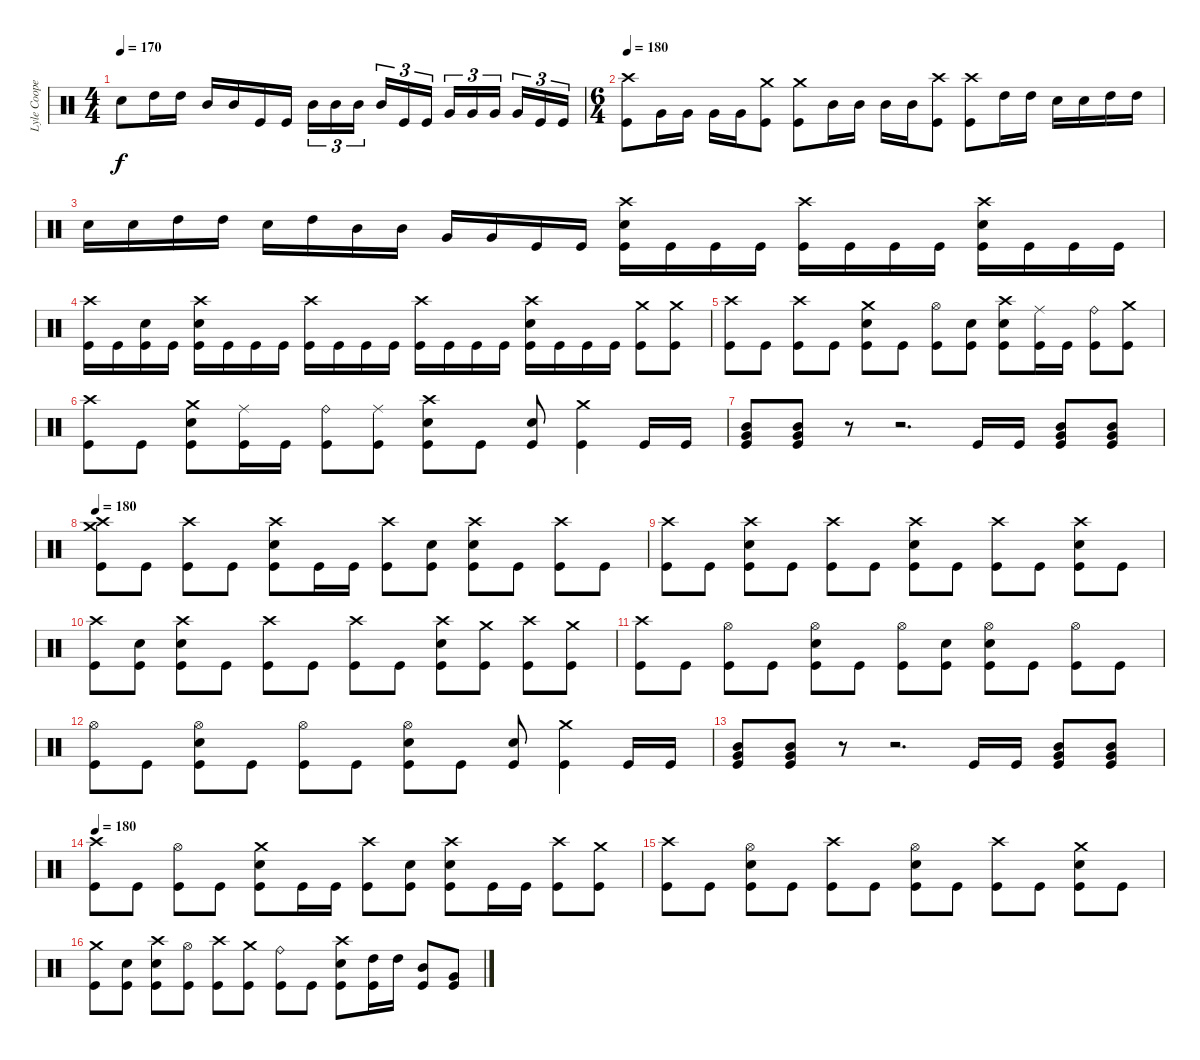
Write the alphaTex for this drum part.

\track ("Lyle Cooper" "Lyle Coope") {instrument percussion}
\staff {score}
\articulation defaults
\ts (4 4)
\tempo 170
\clef neutral
\ks c "Snare (hit) 2".8{dy f} "High Tom (hit)".16 "High Tom (hit)".16 "Mid Tom (hit)".16 "Mid Tom (hit)".16 "Kick (hit)".16 "Kick (hit)".16 "Mid Tom (hit)".16{tu (3 2)} "Mid Tom (hit)".16{tu (3 2)} "Mid Tom (hit)".16{tu (3 2) beam splitsecondary} "Mid Tom (hit)".16{tu (3 2)} "Kick (hit)".16{tu (3 2)} "Kick (hit)".16{tu (3 2)} "Very Low Tom (hit)".16{tu (3 2)} "Very Low Tom (hit)".16{tu (3 2)} "Very Low Tom (hit)".16{tu (3 2) beam splitsecondary} "Very Low Tom (hit)".16{tu (3 2)} "Kick (hit)".16{tu (3 2)} "Kick (hit)".16{tu (3 2)}
|
\ts (6 4)
\tempo 180
("Crash high (hit)" "Kick (hit)").8 "Very Low Tom (hit)".16 "Very Low Tom (hit)".16 "Very Low Tom (hit)".16 "Very Low Tom (hit)".16 ("Crash medium (hit)" "Kick (hit)").8 ("Crash medium (hit)" "Kick (hit)").8 "Mid Tom (hit)".16 "Mid Tom (hit)".16 "Mid Tom (hit)".16 "Mid Tom (hit)".16 ("Crash high (hit)" "Kick (hit)").8 ("Crash high (hit)" "Kick (hit)").8 "High Tom (hit)".16 "High Tom (hit)".16 "Snare (hit) 2".16 "Snare (hit) 2".16 "High Tom (hit)".16 "High Tom (hit)".16 |
"Snare (hit) 2".16 "Snare (hit) 2".16 "High Tom (hit)".16 "High Tom (hit)".16 "Snare (hit) 2".16 "High Tom (hit)".16 "Mid Tom (hit)".16 "Mid Tom (hit)".16 "Very Low Tom (hit)".16 "Very Low Tom (hit)".16 "Kick (hit)".16 "Kick (hit)".16 ("Crash high (hit)" "Snare (hit) 2" "Kick (hit)").16 "Kick (hit)".16 "Kick (hit)".16 "Kick (hit)".16 ("Crash high (hit)" "Kick (hit)").16 "Kick (hit)".16 "Kick (hit)".16 "Kick (hit)".16 ("Crash high (hit)" "Snare (hit) 2" "Kick (hit)").16 "Kick (hit)".16 "Kick (hit)".16 "Kick (hit)".16 |
("Crash high (hit)" "Kick (hit)").16 "Kick (hit)".16 ("Snare (hit) 2" "Kick (hit)").16 "Kick (hit)".16 ("Crash high (hit)" "Snare (hit) 2" "Kick (hit)").16 "Kick (hit)".16 "Kick (hit)".16 "Kick (hit)".16 ("Crash high (hit)" "Kick (hit)").16 "Kick (hit)".16 "Kick (hit)".16 "Kick (hit)".16 ("Crash high (hit)" "Kick (hit)").16 "Kick (hit)".16 "Kick (hit)".16 "Kick (hit)".16 ("Crash high (hit)" "Snare (hit) 2" "Kick (hit)").16 "Kick (hit)".16 "Kick (hit)".16 "Kick (hit)".16 ("Crash medium (hit)" "Kick (hit)").8 ("Crash medium (hit)" "Kick (hit)").8 |
("Crash high (hit)" "Kick (hit)").8 "Kick (hit)".8 ("Crash high (hit)" "Kick (hit)").8 "Kick (hit)".8 ("Crash medium (hit)" "Snare (hit) 2" "Kick (hit)").8 "Kick (hit)".8 ("Hi-Hat (open)" "Kick (hit)").8 ("Snare (hit) 2" "Kick (hit)").8 ("Crash high (hit)" "Snare (hit) 2" "Kick (hit)").8 ("Ride (middle)" "Kick (hit)").16 "Kick (hit)".16 ("Ride (bell)" "Kick (hit)").8 ("Crash medium (hit)" "Kick (hit)").8 |
("Crash high (hit)" "Kick (hit)").8 "Kick (hit)".8 ("Crash medium (hit)" "Snare (hit) 2" "Kick (hit)").8 ("Ride (middle)" "Kick (hit)").16 "Kick (hit)".16 ("Ride (bell)" "Kick (hit)").8 ("Ride (middle)" "Kick (hit)").8 ("Crash high (hit)" "Snare (hit) 2" "Kick (hit)").8 "Kick (hit)".8 ("Snare (hit) 2" "Kick (hit)").8 ("Crash medium (hit)" "Kick (hit)").4 "Kick (hit)".16 "Kick (hit)".16 |
("Very Low Tom (hit)" "Mid Tom (hit)" "Kick (hit)").8 ("Very Low Tom (hit)" "Mid Tom (hit)" "Kick (hit)").8 r.8 r.2{d} "Kick (hit)".16 "Kick (hit)".16 ("Very Low Tom (hit)" "Mid Tom (hit)" "Kick (hit)").8 ("Very Low Tom (hit)" "Mid Tom (hit)" "Kick (hit)").8 |
\tempo 180
("Crash high (hit)" "Crash medium (hit)" "Kick (hit)").8 "Kick (hit)".8 ("Crash high (hit)" "Kick (hit)").8 "Kick (hit)".8 ("Crash high (hit)" "Snare (hit) 2" "Kick (hit)").8 "Kick (hit)".16 "Kick (hit)".16 ("Crash high (hit)" "Kick (hit)").8 ("Snare (hit) 2" "Kick (hit)").8 ("Crash high (hit)" "Snare (hit) 2" "Kick (hit)").8 "Kick (hit)".8 ("Crash high (hit)" "Kick (hit)").8 "Kick (hit)".8 |
("Crash high (hit)" "Kick (hit)").8 "Kick (hit)".8 ("Crash high (hit)" "Snare (hit) 2" "Kick (hit)").8 "Kick (hit)".8 ("Crash high (hit)" "Kick (hit)").8 "Kick (hit)".8 ("Crash high (hit)" "Snare (hit) 2" "Kick (hit)").8 "Kick (hit)".8 ("Crash high (hit)" "Kick (hit)").8 "Kick (hit)".8 ("Crash high (hit)" "Snare (hit) 2" "Kick (hit)").8 "Kick (hit)".8 |
("Crash high (hit)" "Kick (hit)").8 ("Snare (hit) 2" "Kick (hit)").8 ("Crash high (hit)" "Snare (hit) 2" "Kick (hit)").8 "Kick (hit)".8 ("Crash high (hit)" "Kick (hit)").8 "Kick (hit)".8 ("Crash high (hit)" "Kick (hit)").8 "Kick (hit)".8 ("Crash high (hit)" "Snare (hit) 2" "Kick (hit)").8 ("Crash medium (hit)" "Kick (hit)").8 ("Crash high (hit)" "Kick (hit)").8 ("Crash medium (hit)" "Kick (hit)").8 |
("Crash high (hit)" "Kick (hit)").8 "Kick (hit)".8 ("Hi-Hat (open)" "Kick (hit)").8 "Kick (hit)".8 ("Hi-Hat (open)" "Snare (hit) 2" "Kick (hit)").8 "Kick (hit)".8 ("Hi-Hat (open)" "Kick (hit)").8 ("Snare (hit) 2" "Kick (hit)").8 ("Hi-Hat (open)" "Snare (hit) 2" "Kick (hit)").8 "Kick (hit)".8 ("Hi-Hat (open)" "Kick (hit)").8 "Kick (hit)".8 |
("Hi-Hat (open)" "Kick (hit)").8 "Kick (hit)".8 ("Hi-Hat (open)" "Snare (hit) 2" "Kick (hit)").8 "Kick (hit)".8 ("Hi-Hat (open)" "Kick (hit)").8 "Kick (hit)".8 ("Hi-Hat (open)" "Snare (hit) 2" "Kick (hit)").8 "Kick (hit)".8 ("Snare (hit) 2" "Kick (hit)").8 ("Crash medium (hit)" "Kick (hit)").4 "Kick (hit)".16 "Kick (hit)".16 |
("Very Low Tom (hit)" "Mid Tom (hit)" "Kick (hit)").8 ("Very Low Tom (hit)" "Mid Tom (hit)" "Kick (hit)").8 r.8 r.2{d} "Kick (hit)".16 "Kick (hit)".16 ("Very Low Tom (hit)" "Mid Tom (hit)" "Kick (hit)").8 ("Very Low Tom (hit)" "Mid Tom (hit)" "Kick (hit)").8 |
\tempo 180
("Crash high (hit)" "Kick (hit)").8 "Kick (hit)".8 ("Hi-Hat (open)" "Kick (hit)").8 "Kick (hit)".8 ("Crash medium (hit)" "Snare (hit) 2" "Kick (hit)").8 "Kick (hit)".16 "Kick (hit)".16 ("Crash high (hit)" "Kick (hit)").8 ("Snare (hit) 2" "Kick (hit)").8 ("Crash high (hit)" "Snare (hit) 2" "Kick (hit)").8 "Kick (hit)".16 "Kick (hit)".16 ("Crash high (hit)" "Kick (hit)").8 ("Crash medium (hit)" "Kick (hit)").8 |
("Crash high (hit)" "Kick (hit)").8 "Kick (hit)".8 ("Hi-Hat (open)" "Snare (hit) 2" "Kick (hit)").8 "Kick (hit)".8 ("Crash high (hit)" "Kick (hit)").8 "Kick (hit)".8 ("Hi-Hat (open)" "Snare (hit) 2" "Kick (hit)").8 "Kick (hit)".8 ("Crash high (hit)" "Kick (hit)").8 "Kick (hit)".8 ("Crash medium (hit)" "Snare (hit) 2" "Kick (hit)").8 "Kick (hit)".8 |
("Crash medium (hit)" "Kick (hit)").8 ("Snare (hit) 2" "Kick (hit)").8 ("Crash high (hit)" "Snare (hit) 2" "Kick (hit)").8 ("Hi-Hat (open)" "Kick (hit)").8 ("Crash high (hit)" "Kick (hit)").8 ("Crash medium (hit)" "Kick (hit)").8 ("Ride (bell)" "Kick (hit)").8 "Kick (hit)".8 ("Crash high (hit)" "Snare (hit) 2" "Kick (hit)").8 ("High Tom (hit)" "Kick (hit)").16 "High Tom (hit)".16 ("Mid Tom (hit)" "Kick (hit)").8 ("Very Low Tom (hit)" "Kick (hit)").8
